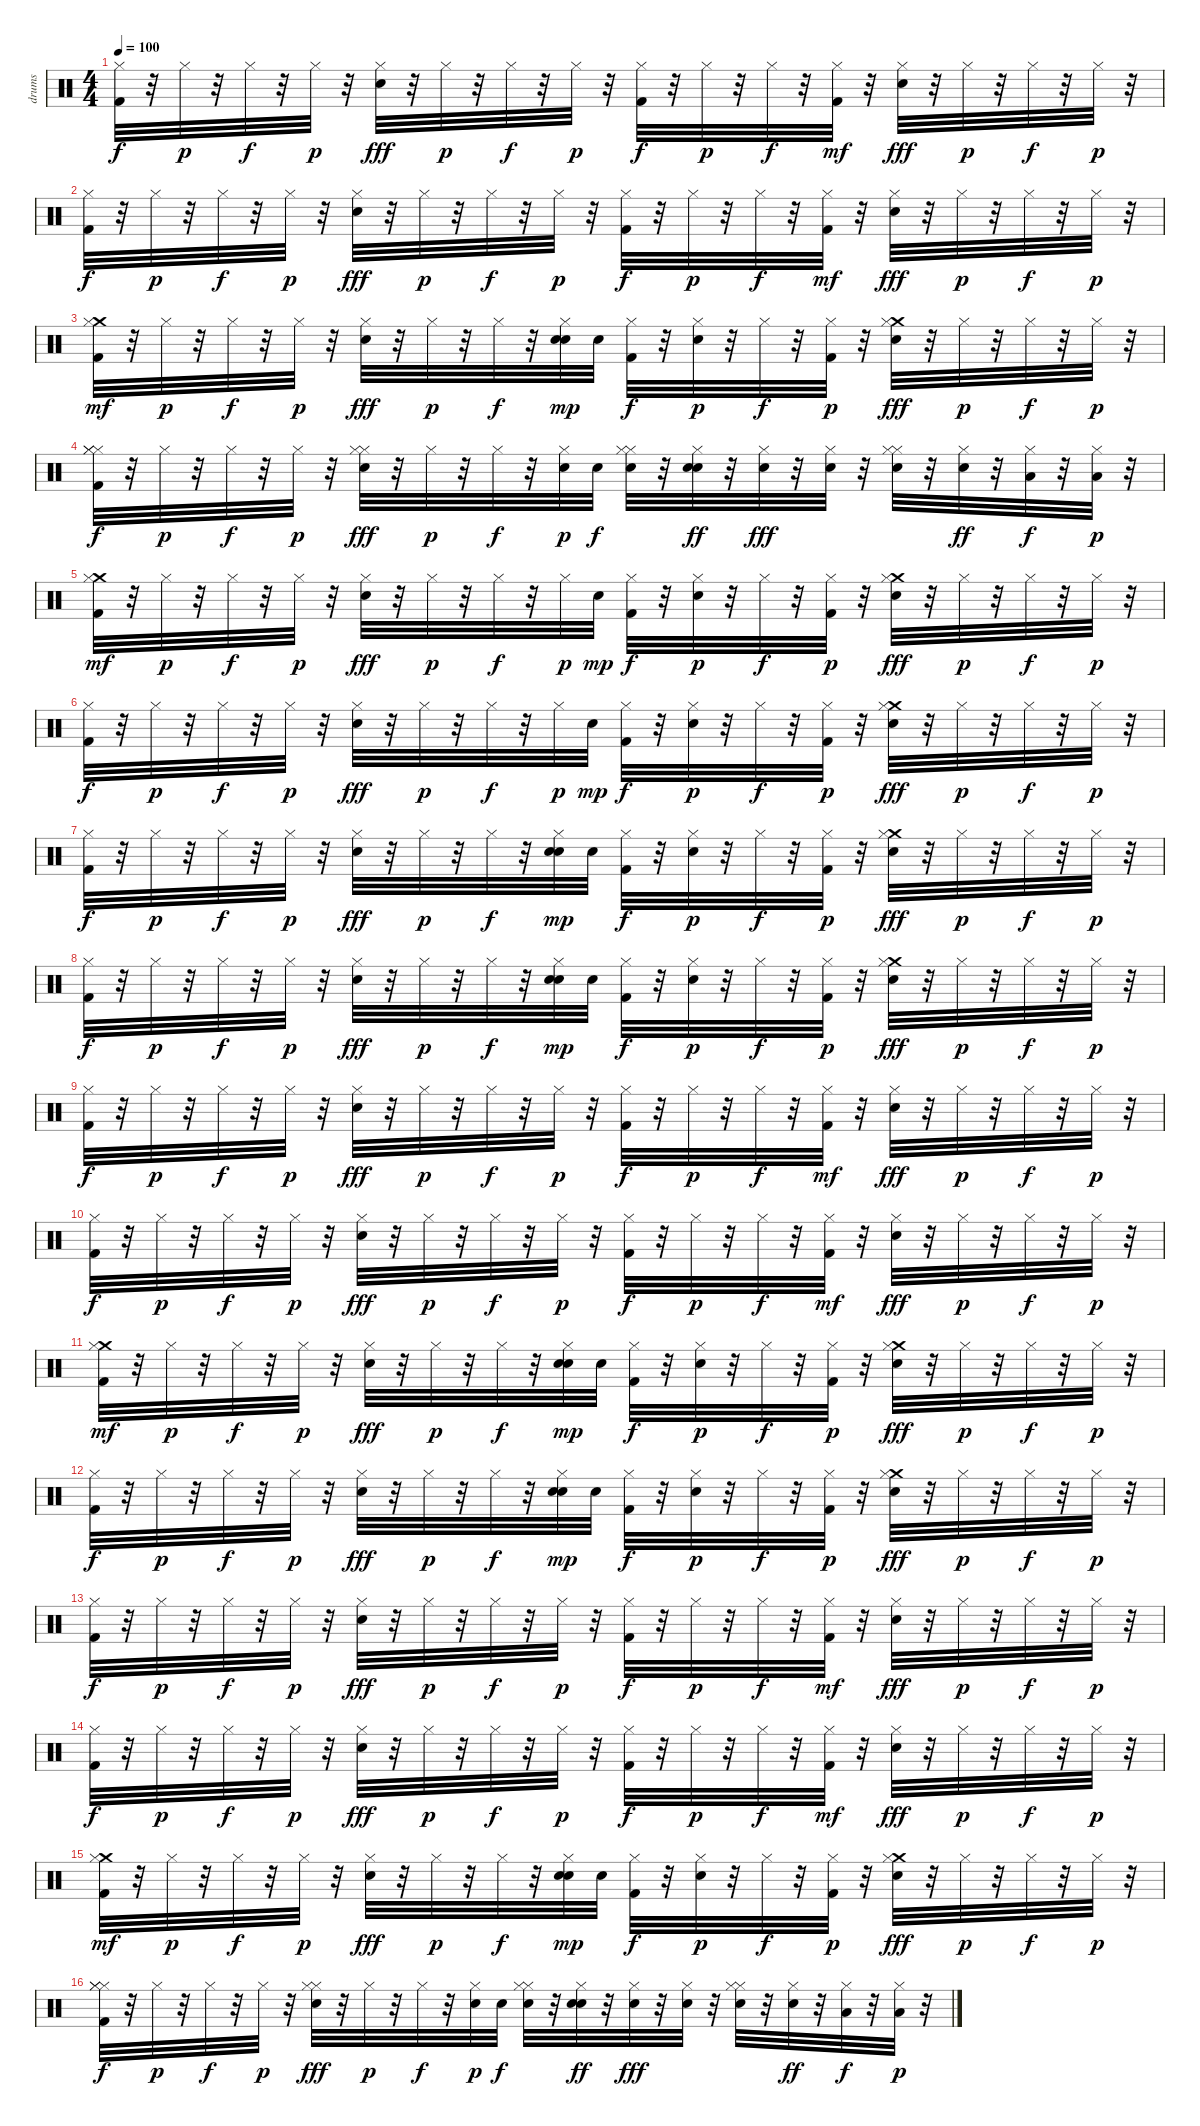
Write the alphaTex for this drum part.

\track ("drums" "drums") {instrument percussion}
\staff {score}
\articulation defaults
\ts (4 4)
\tempo 100
\clef neutral
\ks c
("Hi-Hat (closed)" "Kick (hit) 2").32{dy f} r.32 "Hi-Hat (closed)".32{dy p} r.32 "Hi-Hat (closed)".32{dy f} r.32 "Hi-Hat (closed)".32{dy p} r.32 ("Hi-Hat (closed)" "Electric Snare (hit)").32{dy fff} r.32 "Hi-Hat (closed)".32{dy p} r.32 "Hi-Hat (closed)".32{dy f} r.32 "Hi-Hat (closed)".32{dy p} r.32 ("Hi-Hat (closed)" "Kick (hit) 2").32{dy f} r.32 "Hi-Hat (closed)".32{dy p} r.32 "Hi-Hat (closed)".32{dy f} r.32 ("Hi-Hat (closed)" "Kick (hit) 2").32{dy mf} r.32 ("Hi-Hat (closed)" "Electric Snare (hit)").32{dy fff} r.32 "Hi-Hat (closed)".32{dy p} r.32 "Hi-Hat (closed)".32{dy f} r.32 "Hi-Hat (closed)".32{dy p} r.32 |
("Hi-Hat (closed)" "Kick (hit) 2").32{dy f} r.32 "Hi-Hat (closed)".32{dy p} r.32 "Hi-Hat (closed)".32{dy f} r.32 "Hi-Hat (closed)".32{dy p} r.32 ("Hi-Hat (closed)" "Electric Snare (hit)").32{dy fff} r.32 "Hi-Hat (closed)".32{dy p} r.32 "Hi-Hat (closed)".32{dy f} r.32 "Hi-Hat (closed)".32{dy p} r.32 ("Hi-Hat (closed)" "Kick (hit) 2").32{dy f} r.32 "Hi-Hat (closed)".32{dy p} r.32 "Hi-Hat (closed)".32{dy f} r.32 ("Hi-Hat (closed)" "Kick (hit) 2").32{dy mf} r.32 ("Hi-Hat (closed)" "Electric Snare (hit)").32{dy fff} r.32 "Hi-Hat (closed)".32{dy p} r.32 "Hi-Hat (closed)".32{dy f} r.32 "Hi-Hat (closed)".32{dy p} r.32 |
("Crash medium (hit)" "Hi-Hat (closed)" "Kick (hit) 2").32{dy mf} r.32 "Hi-Hat (closed)".32{dy p} r.32 "Hi-Hat (closed)".32{dy f} r.32 "Hi-Hat (closed)".32{dy p} r.32 ("Hi-Hat (closed)" "Electric Snare (hit)").32{dy fff} r.32 "Hi-Hat (closed)".32{dy p} r.32 "Hi-Hat (closed)".32{dy f} r.32 ("Hi-Hat (closed)" "Electric Snare (hit)" "Electric Snare (hit)").32{dy mp} "Electric Snare (hit)".32 ("Hi-Hat (closed)" "Kick (hit) 2").32{dy f} r.32 ("Hi-Hat (closed)" "Electric Snare (hit)").32{dy p} r.32 "Hi-Hat (closed)".32{dy f} r.32 ("Hi-Hat (closed)" "Kick (hit) 2").32{dy p} r.32 ("Crash medium (hit)" "Hi-Hat (closed)" "Electric Snare (hit)").32{dy fff} r.32 "Hi-Hat (closed)".32{dy p} r.32 "Hi-Hat (closed)".32{dy f} r.32 "Hi-Hat (closed)".32{dy p} r.32 |
("Hi-Hat (closed)" "Hi-Hat (closed)" "Hi-Hat (closed)" "Kick (hit) 2").32{dy f} r.32 "Hi-Hat (closed)".32{dy p} r.32 "Hi-Hat (closed)".32{dy f} r.32 "Hi-Hat (closed)".32{dy p} r.32 ("Hi-Hat (closed)" "Hi-Hat (closed)" "Electric Snare (hit)").32{dy fff} r.32 "Hi-Hat (closed)".32{dy p} r.32 "Hi-Hat (closed)".32{dy f} r.32 ("Hi-Hat (closed)" "Snare (hit) 2").32{dy p} "Snare (hit) 2".32{dy f} ("Hi-Hat (closed)" "Hi-Hat (closed)" "Electric Snare (hit)").32 r.32 ("Hi-Hat (closed)" "Electric Snare (hit)" "Electric Snare (hit)").32{dy ff} r.32 ("Hi-Hat (closed)" "Electric Snare (hit)").32{dy fff} r.32 ("Hi-Hat (closed)" "Electric Snare (hit)").32 r.32 ("Hi-Hat (closed)" "Hi-Hat (closed)" "Snare (hit) 2").32 r.32 ("Hi-Hat (closed)" "Snare (hit) 2").32{dy ff} r.32 ("Hi-Hat (closed)" "Low Tom (hit)").32{dy f} r.32 ("Hi-Hat (closed)" "Low Tom (hit)").32{dy p} r.32 |
("Crash medium (hit)" "Hi-Hat (closed)" "Kick (hit) 2").32{dy mf} r.32 "Hi-Hat (closed)".32{dy p} r.32 "Hi-Hat (closed)".32{dy f} r.32 "Hi-Hat (closed)".32{dy p} r.32 ("Hi-Hat (closed)" "Electric Snare (hit)").32{dy fff} r.32 "Hi-Hat (closed)".32{dy p} r.32 "Hi-Hat (closed)".32{dy f} r.32 "Hi-Hat (closed)".32{dy p} "Electric Snare (hit)".32{dy mp} ("Hi-Hat (closed)" "Kick (hit) 2").32{dy f} r.32 ("Hi-Hat (closed)" "Electric Snare (hit)").32{dy p} r.32 "Hi-Hat (closed)".32{dy f} r.32 ("Hi-Hat (closed)" "Kick (hit) 2").32{dy p} r.32 ("Crash medium (hit)" "Hi-Hat (closed)" "Electric Snare (hit)").32{dy fff} r.32 "Hi-Hat (closed)".32{dy p} r.32 "Hi-Hat (closed)".32{dy f} r.32 "Hi-Hat (closed)".32{dy p} r.32 |
("Hi-Hat (closed)" "Kick (hit) 2").32{dy f} r.32 "Hi-Hat (closed)".32{dy p} r.32 "Hi-Hat (closed)".32{dy f} r.32 "Hi-Hat (closed)".32{dy p} r.32 ("Hi-Hat (closed)" "Electric Snare (hit)").32{dy fff} r.32 "Hi-Hat (closed)".32{dy p} r.32 "Hi-Hat (closed)".32{dy f} r.32 "Hi-Hat (closed)".32{dy p} "Electric Snare (hit)".32{dy mp} ("Hi-Hat (closed)" "Kick (hit) 2").32{dy f} r.32 ("Hi-Hat (closed)" "Electric Snare (hit)").32{dy p} r.32 "Hi-Hat (closed)".32{dy f} r.32 ("Hi-Hat (closed)" "Kick (hit) 2").32{dy p} r.32 ("Crash medium (hit)" "Hi-Hat (closed)" "Electric Snare (hit)").32{dy fff} r.32 "Hi-Hat (closed)".32{dy p} r.32 "Hi-Hat (closed)".32{dy f} r.32 "Hi-Hat (closed)".32{dy p} r.32 |
("Hi-Hat (closed)" "Kick (hit) 2").32{dy f} r.32 "Hi-Hat (closed)".32{dy p} r.32 "Hi-Hat (closed)".32{dy f} r.32 "Hi-Hat (closed)".32{dy p} r.32 ("Hi-Hat (closed)" "Electric Snare (hit)").32{dy fff} r.32 "Hi-Hat (closed)".32{dy p} r.32 "Hi-Hat (closed)".32{dy f} r.32 ("Hi-Hat (closed)" "Electric Snare (hit)" "Electric Snare (hit)").32{dy mp} "Electric Snare (hit)".32 ("Hi-Hat (closed)" "Kick (hit) 2").32{dy f} r.32 ("Hi-Hat (closed)" "Electric Snare (hit)").32{dy p} r.32 "Hi-Hat (closed)".32{dy f} r.32 ("Hi-Hat (closed)" "Kick (hit) 2").32{dy p} r.32 ("Crash medium (hit)" "Hi-Hat (closed)" "Electric Snare (hit)").32{dy fff} r.32 "Hi-Hat (closed)".32{dy p} r.32 "Hi-Hat (closed)".32{dy f} r.32 "Hi-Hat (closed)".32{dy p} r.32 |
("Hi-Hat (closed)" "Kick (hit) 2").32{dy f} r.32 "Hi-Hat (closed)".32{dy p} r.32 "Hi-Hat (closed)".32{dy f} r.32 "Hi-Hat (closed)".32{dy p} r.32 ("Hi-Hat (closed)" "Electric Snare (hit)").32{dy fff} r.32 "Hi-Hat (closed)".32{dy p} r.32 "Hi-Hat (closed)".32{dy f} r.32 ("Hi-Hat (closed)" "Electric Snare (hit)" "Electric Snare (hit)").32{dy mp} "Electric Snare (hit)".32 ("Hi-Hat (closed)" "Kick (hit) 2").32{dy f} r.32 ("Hi-Hat (closed)" "Electric Snare (hit)").32{dy p} r.32 "Hi-Hat (closed)".32{dy f} r.32 ("Hi-Hat (closed)" "Kick (hit) 2").32{dy p} r.32 ("Crash medium (hit)" "Hi-Hat (closed)" "Electric Snare (hit)").32{dy fff} r.32 "Hi-Hat (closed)".32{dy p} r.32 "Hi-Hat (closed)".32{dy f} r.32 "Hi-Hat (closed)".32{dy p} r.32 |
("Hi-Hat (closed)" "Kick (hit) 2").32{dy f} r.32 "Hi-Hat (closed)".32{dy p} r.32 "Hi-Hat (closed)".32{dy f} r.32 "Hi-Hat (closed)".32{dy p} r.32 ("Hi-Hat (closed)" "Electric Snare (hit)").32{dy fff} r.32 "Hi-Hat (closed)".32{dy p} r.32 "Hi-Hat (closed)".32{dy f} r.32 "Hi-Hat (closed)".32{dy p} r.32 ("Hi-Hat (closed)" "Kick (hit) 2").32{dy f} r.32 "Hi-Hat (closed)".32{dy p} r.32 "Hi-Hat (closed)".32{dy f} r.32 ("Hi-Hat (closed)" "Kick (hit) 2").32{dy mf} r.32 ("Hi-Hat (closed)" "Electric Snare (hit)").32{dy fff} r.32 "Hi-Hat (closed)".32{dy p} r.32 "Hi-Hat (closed)".32{dy f} r.32 "Hi-Hat (closed)".32{dy p} r.32 |
("Hi-Hat (closed)" "Kick (hit) 2").32{dy f} r.32 "Hi-Hat (closed)".32{dy p} r.32 "Hi-Hat (closed)".32{dy f} r.32 "Hi-Hat (closed)".32{dy p} r.32 ("Hi-Hat (closed)" "Electric Snare (hit)").32{dy fff} r.32 "Hi-Hat (closed)".32{dy p} r.32 "Hi-Hat (closed)".32{dy f} r.32 "Hi-Hat (closed)".32{dy p} r.32 ("Hi-Hat (closed)" "Kick (hit) 2").32{dy f} r.32 "Hi-Hat (closed)".32{dy p} r.32 "Hi-Hat (closed)".32{dy f} r.32 ("Hi-Hat (closed)" "Kick (hit) 2").32{dy mf} r.32 ("Hi-Hat (closed)" "Electric Snare (hit)").32{dy fff} r.32 "Hi-Hat (closed)".32{dy p} r.32 "Hi-Hat (closed)".32{dy f} r.32 "Hi-Hat (closed)".32{dy p} r.32 |
("Crash medium (hit)" "Hi-Hat (closed)" "Kick (hit) 2").32{dy mf} r.32 "Hi-Hat (closed)".32{dy p} r.32 "Hi-Hat (closed)".32{dy f} r.32 "Hi-Hat (closed)".32{dy p} r.32 ("Hi-Hat (closed)" "Electric Snare (hit)").32{dy fff} r.32 "Hi-Hat (closed)".32{dy p} r.32 "Hi-Hat (closed)".32{dy f} r.32 ("Hi-Hat (closed)" "Electric Snare (hit)" "Electric Snare (hit)").32{dy mp} "Electric Snare (hit)".32 ("Hi-Hat (closed)" "Kick (hit) 2").32{dy f} r.32 ("Hi-Hat (closed)" "Electric Snare (hit)").32{dy p} r.32 "Hi-Hat (closed)".32{dy f} r.32 ("Hi-Hat (closed)" "Kick (hit) 2").32{dy p} r.32 ("Crash medium (hit)" "Hi-Hat (closed)" "Electric Snare (hit)").32{dy fff} r.32 "Hi-Hat (closed)".32{dy p} r.32 "Hi-Hat (closed)".32{dy f} r.32 "Hi-Hat (closed)".32{dy p} r.32 |
("Hi-Hat (closed)" "Kick (hit) 2").32{dy f} r.32 "Hi-Hat (closed)".32{dy p} r.32 "Hi-Hat (closed)".32{dy f} r.32 "Hi-Hat (closed)".32{dy p} r.32 ("Hi-Hat (closed)" "Electric Snare (hit)").32{dy fff} r.32 "Hi-Hat (closed)".32{dy p} r.32 "Hi-Hat (closed)".32{dy f} r.32 ("Hi-Hat (closed)" "Electric Snare (hit)" "Electric Snare (hit)").32{dy mp} "Electric Snare (hit)".32 ("Hi-Hat (closed)" "Kick (hit) 2").32{dy f} r.32 ("Hi-Hat (closed)" "Electric Snare (hit)").32{dy p} r.32 "Hi-Hat (closed)".32{dy f} r.32 ("Hi-Hat (closed)" "Kick (hit) 2").32{dy p} r.32 ("Crash medium (hit)" "Hi-Hat (closed)" "Electric Snare (hit)").32{dy fff} r.32 "Hi-Hat (closed)".32{dy p} r.32 "Hi-Hat (closed)".32{dy f} r.32 "Hi-Hat (closed)".32{dy p} r.32 |
("Hi-Hat (closed)" "Kick (hit) 2").32{dy f} r.32 "Hi-Hat (closed)".32{dy p} r.32 "Hi-Hat (closed)".32{dy f} r.32 "Hi-Hat (closed)".32{dy p} r.32 ("Hi-Hat (closed)" "Electric Snare (hit)").32{dy fff} r.32 "Hi-Hat (closed)".32{dy p} r.32 "Hi-Hat (closed)".32{dy f} r.32 "Hi-Hat (closed)".32{dy p} r.32 ("Hi-Hat (closed)" "Kick (hit) 2").32{dy f} r.32 "Hi-Hat (closed)".32{dy p} r.32 "Hi-Hat (closed)".32{dy f} r.32 ("Hi-Hat (closed)" "Kick (hit) 2").32{dy mf} r.32 ("Hi-Hat (closed)" "Electric Snare (hit)").32{dy fff} r.32 "Hi-Hat (closed)".32{dy p} r.32 "Hi-Hat (closed)".32{dy f} r.32 "Hi-Hat (closed)".32{dy p} r.32 |
("Hi-Hat (closed)" "Kick (hit) 2").32{dy f} r.32 "Hi-Hat (closed)".32{dy p} r.32 "Hi-Hat (closed)".32{dy f} r.32 "Hi-Hat (closed)".32{dy p} r.32 ("Hi-Hat (closed)" "Electric Snare (hit)").32{dy fff} r.32 "Hi-Hat (closed)".32{dy p} r.32 "Hi-Hat (closed)".32{dy f} r.32 "Hi-Hat (closed)".32{dy p} r.32 ("Hi-Hat (closed)" "Kick (hit) 2").32{dy f} r.32 "Hi-Hat (closed)".32{dy p} r.32 "Hi-Hat (closed)".32{dy f} r.32 ("Hi-Hat (closed)" "Kick (hit) 2").32{dy mf} r.32 ("Hi-Hat (closed)" "Electric Snare (hit)").32{dy fff} r.32 "Hi-Hat (closed)".32{dy p} r.32 "Hi-Hat (closed)".32{dy f} r.32 "Hi-Hat (closed)".32{dy p} r.32 |
("Crash medium (hit)" "Hi-Hat (closed)" "Kick (hit) 2").32{dy mf} r.32 "Hi-Hat (closed)".32{dy p} r.32 "Hi-Hat (closed)".32{dy f} r.32 "Hi-Hat (closed)".32{dy p} r.32 ("Hi-Hat (closed)" "Electric Snare (hit)").32{dy fff} r.32 "Hi-Hat (closed)".32{dy p} r.32 "Hi-Hat (closed)".32{dy f} r.32 ("Hi-Hat (closed)" "Electric Snare (hit)" "Electric Snare (hit)").32{dy mp} "Electric Snare (hit)".32 ("Hi-Hat (closed)" "Kick (hit) 2").32{dy f} r.32 ("Hi-Hat (closed)" "Electric Snare (hit)").32{dy p} r.32 "Hi-Hat (closed)".32{dy f} r.32 ("Hi-Hat (closed)" "Kick (hit) 2").32{dy p} r.32 ("Crash medium (hit)" "Hi-Hat (closed)" "Electric Snare (hit)").32{dy fff} r.32 "Hi-Hat (closed)".32{dy p} r.32 "Hi-Hat (closed)".32{dy f} r.32 "Hi-Hat (closed)".32{dy p} r.32 |
("Hi-Hat (closed)" "Hi-Hat (closed)" "Hi-Hat (closed)" "Kick (hit) 2").32{dy f} r.32 "Hi-Hat (closed)".32{dy p} r.32 "Hi-Hat (closed)".32{dy f} r.32 "Hi-Hat (closed)".32{dy p} r.32 ("Hi-Hat (closed)" "Hi-Hat (closed)" "Electric Snare (hit)").32{dy fff} r.32 "Hi-Hat (closed)".32{dy p} r.32 "Hi-Hat (closed)".32{dy f} r.32 ("Hi-Hat (closed)" "Snare (hit) 2").32{dy p} "Snare (hit) 2".32{dy f} ("Hi-Hat (closed)" "Hi-Hat (closed)" "Electric Snare (hit)").32 r.32 ("Hi-Hat (closed)" "Electric Snare (hit)" "Electric Snare (hit)").32{dy ff} r.32 ("Hi-Hat (closed)" "Electric Snare (hit)").32{dy fff} r.32 ("Hi-Hat (closed)" "Electric Snare (hit)").32 r.32 ("Hi-Hat (closed)" "Hi-Hat (closed)" "Snare (hit) 2").32 r.32 ("Hi-Hat (closed)" "Snare (hit) 2").32{dy ff} r.32 ("Hi-Hat (closed)" "Low Tom (hit)").32{dy f} r.32 ("Hi-Hat (closed)" "Low Tom (hit)").32{dy p} r.32
